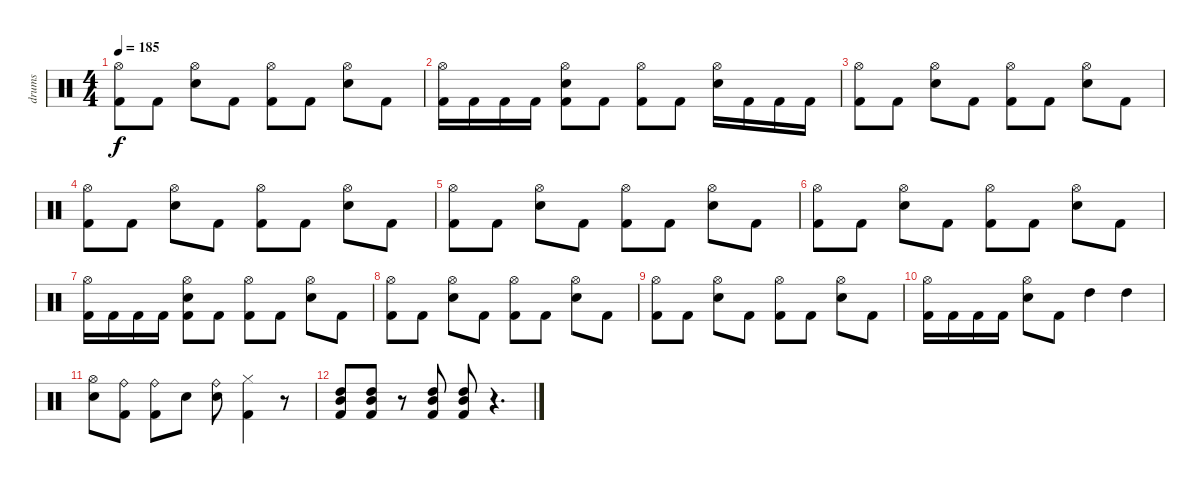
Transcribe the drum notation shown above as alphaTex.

\track ("drums" "drums") {instrument percussion}
\staff {score}
\articulation defaults
\ts (4 4)
\tempo 185
\clef neutral
\ks c
("Hi-Hat (open)" "Kick (hit) 2").8{dy f} "Kick (hit) 2".8 ("Hi-Hat (open)" "Electric Snare (hit)").8 "Kick (hit) 2".8 ("Hi-Hat (open)" "Kick (hit) 2").8 "Kick (hit) 2".8 ("Hi-Hat (open)" "Electric Snare (hit)").8 "Kick (hit) 2".8 |
("Hi-Hat (open)" "Kick (hit) 2").16 "Kick (hit) 2".16 "Kick (hit) 2".16 "Kick (hit) 2".16 ("Hi-Hat (open)" "Electric Snare (hit)" "Kick (hit) 2").8 "Kick (hit) 2".8 ("Hi-Hat (open)" "Kick (hit) 2").8 "Kick (hit) 2".8 ("Hi-Hat (open)" "Electric Snare (hit)").16 "Kick (hit) 2".16 "Kick (hit) 2".16 "Kick (hit) 2".16 |
("Hi-Hat (open)" "Kick (hit) 2").8 "Kick (hit) 2".8 ("Hi-Hat (open)" "Electric Snare (hit)").8 "Kick (hit) 2".8 ("Hi-Hat (open)" "Kick (hit) 2").8 "Kick (hit) 2".8 ("Hi-Hat (open)" "Electric Snare (hit)").8 "Kick (hit) 2".8 |
("Hi-Hat (open)" "Kick (hit) 2").8 "Kick (hit) 2".8 ("Hi-Hat (open)" "Electric Snare (hit)").8 "Kick (hit) 2".8 ("Hi-Hat (open)" "Kick (hit) 2").8 "Kick (hit) 2".8 ("Hi-Hat (open)" "Electric Snare (hit)").8 "Kick (hit) 2".8 |
("Hi-Hat (open)" "Kick (hit) 2").8 "Kick (hit) 2".8 ("Hi-Hat (open)" "Electric Snare (hit)").8 "Kick (hit) 2".8 ("Hi-Hat (open)" "Kick (hit) 2").8 "Kick (hit) 2".8 ("Hi-Hat (open)" "Electric Snare (hit)").8 "Kick (hit) 2".8 |
("Hi-Hat (open)" "Kick (hit) 2").8 "Kick (hit) 2".8 ("Hi-Hat (open)" "Electric Snare (hit)").8 "Kick (hit) 2".8 ("Hi-Hat (open)" "Kick (hit) 2").8 "Kick (hit) 2".8 ("Hi-Hat (open)" "Electric Snare (hit)").8 "Kick (hit) 2".8 |
("Hi-Hat (open)" "Kick (hit) 2").16 "Kick (hit) 2".16 "Kick (hit) 2".16 "Kick (hit) 2".16 ("Hi-Hat (open)" "Electric Snare (hit)" "Kick (hit) 2").8 "Kick (hit) 2".8 ("Hi-Hat (open)" "Kick (hit) 2").8 "Kick (hit) 2".8 ("Hi-Hat (open)" "Electric Snare (hit)").8 "Kick (hit) 2".8 |
("Hi-Hat (open)" "Kick (hit) 2").8 "Kick (hit) 2".8 ("Hi-Hat (open)" "Electric Snare (hit)").8 "Kick (hit) 2".8 ("Hi-Hat (open)" "Kick (hit) 2").8 "Kick (hit) 2".8 ("Hi-Hat (open)" "Electric Snare (hit)").8 "Kick (hit) 2".8 |
("Hi-Hat (open)" "Kick (hit) 2").8 "Kick (hit) 2".8 ("Hi-Hat (open)" "Electric Snare (hit)").8 "Kick (hit) 2".8 ("Hi-Hat (open)" "Kick (hit) 2").8 "Kick (hit) 2".8 ("Hi-Hat (open)" "Electric Snare (hit)").8 "Kick (hit) 2".8 |
("Hi-Hat (open)" "Kick (hit) 2").16 "Kick (hit) 2".16 "Kick (hit) 2".16 "Kick (hit) 2".16 ("Hi-Hat (open)" "Electric Snare (hit)").8 "Kick (hit) 2".8 "High Tom (hit)".4 "High Tom (hit)".4 |
("Hi-Hat (open)" "Electric Snare (hit)").8 ("Ride (bell)" "Kick (hit) 2").8 ("Ride (bell)" "Kick (hit) 2").8 "Electric Snare (hit)".8 ("Ride (bell)" "Electric Snare (hit)").8 ("Hi-Hat (closed)" "Kick (hit) 2").4 r.8 |
("Mid Tom (hit)" "High Tom (hit)" "Kick (hit) 2").8 ("Mid Tom (hit)" "High Tom (hit)" "Kick (hit) 2").8 r.8 ("Mid Tom (hit)" "High Tom (hit)" "Kick (hit) 2").8 ("Mid Tom (hit)" "High Tom (hit)" "Kick (hit) 2").8 r.4{d}
